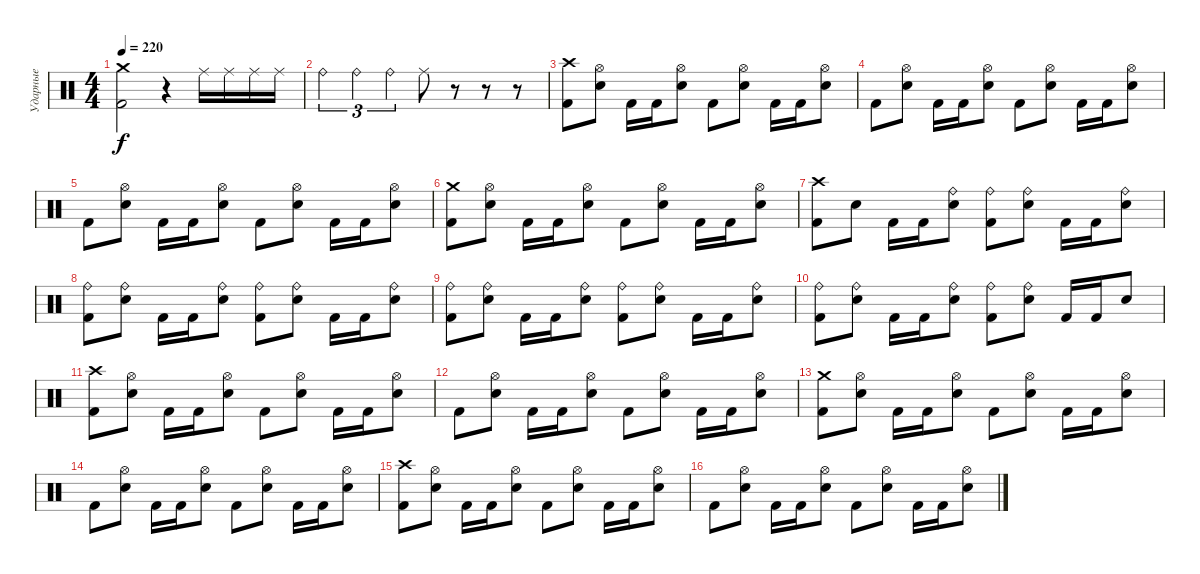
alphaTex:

\track ("Ударные" "Ударные") {instrument percussion}
\staff {score}
\articulation defaults
\ts (4 4)
\tempo 220
\clef neutral
\ks c
("Crash medium (hit)" "Kick (hit) 2").2{dy f} r.4 "Ride (middle)".16 "Ride (middle)".16 "Ride (middle)".16 "Ride (middle)".16 |
"Ride (bell)".4{tu (3 2)} "Ride (bell)".4{tu (3 2)} "Ride (bell)".4{tu (3 2)} "Ride (middle)".8 r.8 r.8 r.8 |
("Crash high (hit)" "Kick (hit) 2").8 ("Hi-Hat (open)" "Electric Snare (hit)").8 "Kick (hit) 2".16 "Kick (hit) 2".16 ("Hi-Hat (open)" "Electric Snare (hit)").8 "Kick (hit) 2".8 ("Hi-Hat (open)" "Electric Snare (hit)").8 "Kick (hit) 2".16 "Kick (hit) 2".16 ("Hi-Hat (open)" "Electric Snare (hit)").8 |
"Kick (hit) 2".8 ("Hi-Hat (open)" "Electric Snare (hit)").8 "Kick (hit) 2".16 "Kick (hit) 2".16 ("Hi-Hat (open)" "Electric Snare (hit)").8 "Kick (hit) 2".8 ("Hi-Hat (open)" "Electric Snare (hit)").8 "Kick (hit) 2".16 "Kick (hit) 2".16 ("Hi-Hat (open)" "Electric Snare (hit)").8 |
"Kick (hit) 2".8 ("Hi-Hat (open)" "Electric Snare (hit)").8 "Kick (hit) 2".16 "Kick (hit) 2".16 ("Hi-Hat (open)" "Electric Snare (hit)").8 "Kick (hit) 2".8 ("Hi-Hat (open)" "Electric Snare (hit)").8 "Kick (hit) 2".16 "Kick (hit) 2".16 ("Hi-Hat (open)" "Electric Snare (hit)").8 |
("Crash medium (hit)" "Kick (hit) 2").8 ("Hi-Hat (open)" "Electric Snare (hit)").8 "Kick (hit) 2".16 "Kick (hit) 2".16 ("Hi-Hat (open)" "Electric Snare (hit)").8 "Kick (hit) 2".8 ("Hi-Hat (open)" "Electric Snare (hit)").8 "Kick (hit) 2".16 "Kick (hit) 2".16 ("Hi-Hat (open)" "Electric Snare (hit)").8 |
("Crash high (hit)" "Kick (hit) 2").8 "Electric Snare (hit)".8 "Kick (hit) 2".16 "Kick (hit) 2".16 ("Ride (bell)" "Electric Snare (hit)").8 ("Ride (bell)" "Kick (hit) 2").8 ("Ride (bell)" "Electric Snare (hit)").8 "Kick (hit) 2".16 "Kick (hit) 2".16 ("Ride (bell)" "Electric Snare (hit)").8 |
("Ride (bell)" "Kick (hit) 2").8 ("Ride (bell)" "Electric Snare (hit)").8 "Kick (hit) 2".16 "Kick (hit) 2".16 ("Ride (bell)" "Electric Snare (hit)").8 ("Ride (bell)" "Kick (hit) 2").8 ("Ride (bell)" "Electric Snare (hit)").8 "Kick (hit) 2".16 "Kick (hit) 2".16 ("Ride (bell)" "Electric Snare (hit)").8 |
("Ride (bell)" "Kick (hit) 2").8 ("Ride (bell)" "Electric Snare (hit)").8 "Kick (hit) 2".16 "Kick (hit) 2".16 ("Ride (bell)" "Electric Snare (hit)").8 ("Ride (bell)" "Kick (hit) 2").8 ("Ride (bell)" "Electric Snare (hit)").8 "Kick (hit) 2".16 "Kick (hit) 2".16 ("Ride (bell)" "Electric Snare (hit)").8 |
("Ride (bell)" "Kick (hit) 2").8 ("Ride (bell)" "Electric Snare (hit)").8 "Kick (hit) 2".16 "Kick (hit) 2".16 ("Ride (bell)" "Electric Snare (hit)").8 ("Ride (bell)" "Kick (hit) 2").8 ("Ride (bell)" "Electric Snare (hit)").8 "Kick (hit) 2".16 "Kick (hit) 2".16 "Electric Snare (hit)".8 |
("Crash high (hit)" "Kick (hit) 2").8 ("Hi-Hat (open)" "Electric Snare (hit)").8 "Kick (hit) 2".16 "Kick (hit) 2".16 ("Hi-Hat (open)" "Electric Snare (hit)").8 "Kick (hit) 2".8 ("Hi-Hat (open)" "Electric Snare (hit)").8 "Kick (hit) 2".16 "Kick (hit) 2".16 ("Hi-Hat (open)" "Electric Snare (hit)").8 |
"Kick (hit) 2".8 ("Hi-Hat (open)" "Electric Snare (hit)").8 "Kick (hit) 2".16 "Kick (hit) 2".16 ("Hi-Hat (open)" "Electric Snare (hit)").8 "Kick (hit) 2".8 ("Hi-Hat (open)" "Electric Snare (hit)").8 "Kick (hit) 2".16 "Kick (hit) 2".16 ("Hi-Hat (open)" "Electric Snare (hit)").8 |
("Crash medium (hit)" "Kick (hit) 2").8 ("Hi-Hat (open)" "Electric Snare (hit)").8 "Kick (hit) 2".16 "Kick (hit) 2".16 ("Hi-Hat (open)" "Electric Snare (hit)").8 "Kick (hit) 2".8 ("Hi-Hat (open)" "Electric Snare (hit)").8 "Kick (hit) 2".16 "Kick (hit) 2".16 ("Hi-Hat (open)" "Electric Snare (hit)").8 |
"Kick (hit) 2".8 ("Hi-Hat (open)" "Electric Snare (hit)").8 "Kick (hit) 2".16 "Kick (hit) 2".16 ("Hi-Hat (open)" "Electric Snare (hit)").8 "Kick (hit) 2".8 ("Hi-Hat (open)" "Electric Snare (hit)").8 "Kick (hit) 2".16 "Kick (hit) 2".16 ("Hi-Hat (open)" "Electric Snare (hit)").8 |
("Crash high (hit)" "Kick (hit) 2").8 ("Hi-Hat (open)" "Electric Snare (hit)").8 "Kick (hit) 2".16 "Kick (hit) 2".16 ("Hi-Hat (open)" "Electric Snare (hit)").8 "Kick (hit) 2".8 ("Hi-Hat (open)" "Electric Snare (hit)").8 "Kick (hit) 2".16 "Kick (hit) 2".16 ("Hi-Hat (open)" "Electric Snare (hit)").8 |
"Kick (hit) 2".8 ("Hi-Hat (open)" "Electric Snare (hit)").8 "Kick (hit) 2".16 "Kick (hit) 2".16 ("Hi-Hat (open)" "Electric Snare (hit)").8 "Kick (hit) 2".8 ("Hi-Hat (open)" "Electric Snare (hit)").8 "Kick (hit) 2".16 "Kick (hit) 2".16 ("Hi-Hat (open)" "Electric Snare (hit)").8
